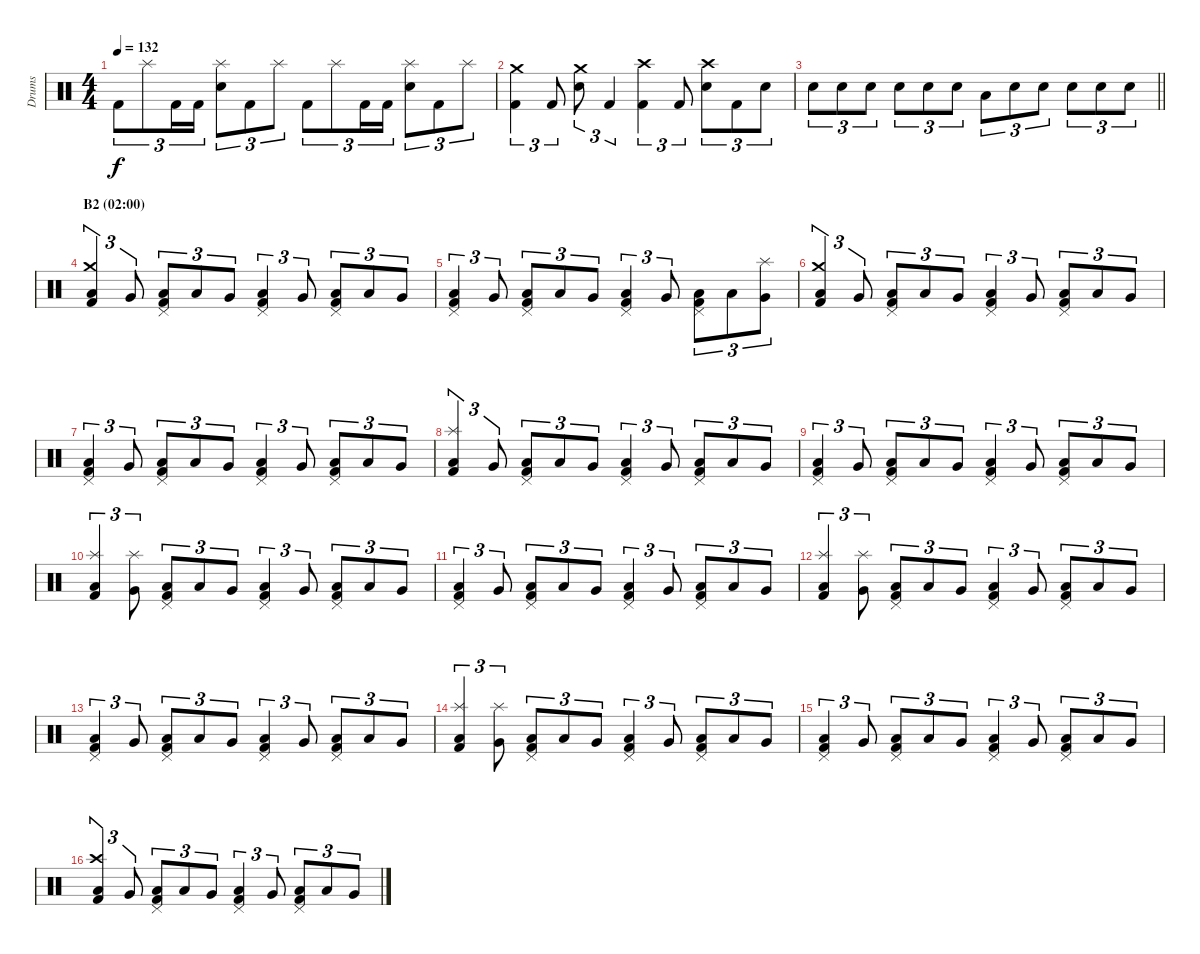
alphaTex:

\track ("Drums" "Drums") {instrument percussion}
\staff {score}
\articulation defaults
\ts (4 4)
\tempo 132
\clef neutral
\ks c "Kick (hit) 2".8{tu (3 2) dy f} "Splash (hit)".8{tu (3 2)} "Kick (hit) 2".16{tu (3 2)} "Kick (hit) 2".16{tu (3 2)}
("Splash (hit)" "Electric Snare (hit)").8{tu (3 2)} "Kick (hit) 2".8{tu (3 2)} "Splash (hit)".8{tu (3 2)} "Kick (hit) 2".8{tu (3 2)} "Splash (hit)".8{tu (3 2)} "Kick (hit) 2".16{tu (3 2)} "Kick (hit) 2".16{tu (3 2)} ("Splash (hit)" "Electric Snare (hit)").8{tu (3 2)} "Kick (hit) 2".8{tu (3 2)} "Splash (hit)".8{tu (3 2)} |
("Crash medium (hit)" "Kick (hit) 2").4{tu (3 2)} "Kick (hit) 2".8{tu (3 2)} ("Crash medium (hit)" "Electric Snare (hit)").8{tu (3 2)} "Kick (hit) 2".4{tu (3 2)} ("Crash high (hit)" "Kick (hit) 2").4{tu (3 2)} "Kick (hit) 2".8{tu (3 2)} ("Crash high (hit)" "Electric Snare (hit)").8{tu (3 2)} "Kick (hit) 2".8{tu (3 2)} "Electric Snare (hit)".8{tu (3 2)} |
\barLineRight lightlight "Electric Snare (hit)".8{tu (3 2)} "Electric Snare (hit)".8{tu (3 2)} "Electric Snare (hit)".8{tu (3 2)} "Electric Snare (hit)".8{tu (3 2)} "Electric Snare (hit)".8{tu (3 2)} "Electric Snare (hit)".8{tu (3 2)} "Low Tom (hit)".8{tu (3 2)} "Electric Snare (hit)".8{tu (3 2)} "Electric Snare (hit)".8{tu (3 2)} "Electric Snare (hit)".8{tu (3 2)} "Electric Snare (hit)".8{tu (3 2)} "Electric Snare (hit)".8{tu (3 2)}
|
\section ("" "B2 (02:00)")
("Crash medium (hit)" "Low Tom (hit)" "Kick (hit) 2").4{tu (3 2)} "Very Low Tom (hit)".8{tu (3 2)} ("Pedal Hi-Hat (hit)" "Low Tom (hit)" "Kick (hit) 2").8{tu (3 2)} "Low Tom (hit)".8{tu (3 2)} "Very Low Tom (hit)".8{tu (3 2)} ("Pedal Hi-Hat (hit)" "Low Tom (hit)" "Kick (hit) 2").4{tu (3 2)} "Very Low Tom (hit)".8{tu (3 2)} ("Pedal Hi-Hat (hit)" "Low Tom (hit)" "Kick (hit) 2").8{tu (3 2)} "Low Tom (hit)".8{tu (3 2)} "Very Low Tom (hit)".8{tu (3 2)} |
("Pedal Hi-Hat (hit)" "Low Tom (hit)" "Kick (hit) 2").4{tu (3 2)} "Very Low Tom (hit)".8{tu (3 2)} ("Pedal Hi-Hat (hit)" "Low Tom (hit)" "Kick (hit) 2").8{tu (3 2)} "Low Tom (hit)".8{tu (3 2)} "Very Low Tom (hit)".8{tu (3 2)} ("Pedal Hi-Hat (hit)" "Low Tom (hit)" "Kick (hit) 2").4{tu (3 2)} "Very Low Tom (hit)".8{tu (3 2)} ("Pedal Hi-Hat (hit)" "Low Tom (hit)" "Kick (hit) 2").8{tu (3 2)} "Low Tom (hit)".8{tu (3 2)} ("Splash (hit)" "Very Low Tom (hit)").8{tu (3 2)} |
("Crash medium (hit)" "Low Tom (hit)" "Kick (hit) 2").4{tu (3 2)} "Very Low Tom (hit)".8{tu (3 2)} ("Pedal Hi-Hat (hit)" "Low Tom (hit)" "Kick (hit) 2").8{tu (3 2)} "Low Tom (hit)".8{tu (3 2)} "Very Low Tom (hit)".8{tu (3 2)} ("Pedal Hi-Hat (hit)" "Low Tom (hit)" "Kick (hit) 2").4{tu (3 2)} "Very Low Tom (hit)".8{tu (3 2)} ("Pedal Hi-Hat (hit)" "Low Tom (hit)" "Kick (hit) 2").8{tu (3 2)} "Low Tom (hit)".8{tu (3 2)} "Very Low Tom (hit)".8{tu (3 2)} |
("Pedal Hi-Hat (hit)" "Low Tom (hit)" "Kick (hit) 2").4{tu (3 2)} "Very Low Tom (hit)".8{tu (3 2)} ("Pedal Hi-Hat (hit)" "Low Tom (hit)" "Kick (hit) 2").8{tu (3 2)} "Low Tom (hit)".8{tu (3 2)} "Very Low Tom (hit)".8{tu (3 2)} ("Pedal Hi-Hat (hit)" "Low Tom (hit)" "Kick (hit) 2").4{tu (3 2)} "Very Low Tom (hit)".8{tu (3 2)} ("Pedal Hi-Hat (hit)" "Low Tom (hit)" "Kick (hit) 2").8{tu (3 2)} "Low Tom (hit)".8{tu (3 2)} "Very Low Tom (hit)".8{tu (3 2)} |
("Splash (hit)" "Low Tom (hit)" "Kick (hit) 2").4{tu (3 2)} "Very Low Tom (hit)".8{tu (3 2)} ("Pedal Hi-Hat (hit)" "Low Tom (hit)" "Kick (hit) 2").8{tu (3 2)} "Low Tom (hit)".8{tu (3 2)} "Very Low Tom (hit)".8{tu (3 2)} ("Pedal Hi-Hat (hit)" "Low Tom (hit)" "Kick (hit) 2").4{tu (3 2)} "Very Low Tom (hit)".8{tu (3 2)} ("Pedal Hi-Hat (hit)" "Low Tom (hit)" "Kick (hit) 2").8{tu (3 2)} "Low Tom (hit)".8{tu (3 2)} "Very Low Tom (hit)".8{tu (3 2)} |
("Pedal Hi-Hat (hit)" "Low Tom (hit)" "Kick (hit) 2").4{tu (3 2)} "Very Low Tom (hit)".8{tu (3 2)} ("Pedal Hi-Hat (hit)" "Low Tom (hit)" "Kick (hit) 2").8{tu (3 2)} "Low Tom (hit)".8{tu (3 2)} "Very Low Tom (hit)".8{tu (3 2)} ("Pedal Hi-Hat (hit)" "Low Tom (hit)" "Kick (hit) 2").4{tu (3 2)} "Very Low Tom (hit)".8{tu (3 2)} ("Pedal Hi-Hat (hit)" "Low Tom (hit)" "Kick (hit) 2").8{tu (3 2)} "Low Tom (hit)".8{tu (3 2)} "Very Low Tom (hit)".8{tu (3 2)} |
("Splash (hit)" "Low Tom (hit)" "Kick (hit) 2").4{tu (3 2)} ("Splash (hit)" "Very Low Tom (hit)").8{tu (3 2)} ("Pedal Hi-Hat (hit)" "Low Tom (hit)" "Kick (hit) 2").8{tu (3 2)} "Low Tom (hit)".8{tu (3 2)} "Very Low Tom (hit)".8{tu (3 2)} ("Pedal Hi-Hat (hit)" "Low Tom (hit)" "Kick (hit) 2").4{tu (3 2)} "Very Low Tom (hit)".8{tu (3 2)} ("Pedal Hi-Hat (hit)" "Low Tom (hit)" "Kick (hit) 2").8{tu (3 2)} "Low Tom (hit)".8{tu (3 2)} "Very Low Tom (hit)".8{tu (3 2)} |
("Pedal Hi-Hat (hit)" "Low Tom (hit)" "Kick (hit) 2").4{tu (3 2)} "Very Low Tom (hit)".8{tu (3 2)} ("Pedal Hi-Hat (hit)" "Low Tom (hit)" "Kick (hit) 2").8{tu (3 2)} "Low Tom (hit)".8{tu (3 2)} "Very Low Tom (hit)".8{tu (3 2)} ("Pedal Hi-Hat (hit)" "Low Tom (hit)" "Kick (hit) 2").4{tu (3 2)} "Very Low Tom (hit)".8{tu (3 2)} ("Pedal Hi-Hat (hit)" "Low Tom (hit)" "Kick (hit) 2").8{tu (3 2)} "Low Tom (hit)".8{tu (3 2)} "Very Low Tom (hit)".8{tu (3 2)} |
("Splash (hit)" "Low Tom (hit)" "Kick (hit) 2").4{tu (3 2)} ("Splash (hit)" "Very Low Tom (hit)").8{tu (3 2)} ("Pedal Hi-Hat (hit)" "Low Tom (hit)" "Kick (hit) 2").8{tu (3 2)} "Low Tom (hit)".8{tu (3 2)} "Very Low Tom (hit)".8{tu (3 2)} ("Pedal Hi-Hat (hit)" "Low Tom (hit)" "Kick (hit) 2").4{tu (3 2)} "Very Low Tom (hit)".8{tu (3 2)} ("Pedal Hi-Hat (hit)" "Low Tom (hit)" "Kick (hit) 2").8{tu (3 2)} "Low Tom (hit)".8{tu (3 2)} "Very Low Tom (hit)".8{tu (3 2)} |
("Pedal Hi-Hat (hit)" "Low Tom (hit)" "Kick (hit) 2").4{tu (3 2)} "Very Low Tom (hit)".8{tu (3 2)} ("Pedal Hi-Hat (hit)" "Low Tom (hit)" "Kick (hit) 2").8{tu (3 2)} "Low Tom (hit)".8{tu (3 2)} "Very Low Tom (hit)".8{tu (3 2)} ("Pedal Hi-Hat (hit)" "Low Tom (hit)" "Kick (hit) 2").4{tu (3 2)} "Very Low Tom (hit)".8{tu (3 2)} ("Pedal Hi-Hat (hit)" "Low Tom (hit)" "Kick (hit) 2").8{tu (3 2)} "Low Tom (hit)".8{tu (3 2)} "Very Low Tom (hit)".8{tu (3 2)} |
("Splash (hit)" "Low Tom (hit)" "Kick (hit) 2").4{tu (3 2)} ("Splash (hit)" "Very Low Tom (hit)").8{tu (3 2)} ("Pedal Hi-Hat (hit)" "Low Tom (hit)" "Kick (hit) 2").8{tu (3 2)} "Low Tom (hit)".8{tu (3 2)} "Very Low Tom (hit)".8{tu (3 2)} ("Pedal Hi-Hat (hit)" "Low Tom (hit)" "Kick (hit) 2").4{tu (3 2)} "Very Low Tom (hit)".8{tu (3 2)} ("Pedal Hi-Hat (hit)" "Low Tom (hit)" "Kick (hit) 2").8{tu (3 2)} "Low Tom (hit)".8{tu (3 2)} "Very Low Tom (hit)".8{tu (3 2)} |
("Pedal Hi-Hat (hit)" "Low Tom (hit)" "Kick (hit) 2").4{tu (3 2)} "Very Low Tom (hit)".8{tu (3 2)} ("Pedal Hi-Hat (hit)" "Low Tom (hit)" "Kick (hit) 2").8{tu (3 2)} "Low Tom (hit)".8{tu (3 2)} "Very Low Tom (hit)".8{tu (3 2)} ("Pedal Hi-Hat (hit)" "Low Tom (hit)" "Kick (hit) 2").4{tu (3 2)} "Very Low Tom (hit)".8{tu (3 2)} ("Pedal Hi-Hat (hit)" "Low Tom (hit)" "Kick (hit) 2").8{tu (3 2)} "Low Tom (hit)".8{tu (3 2)} "Very Low Tom (hit)".8{tu (3 2)} |
("Crash high (hit)" "Low Tom (hit)" "Kick (hit) 2").4{tu (3 2)} "Very Low Tom (hit)".8{tu (3 2)} ("Pedal Hi-Hat (hit)" "Low Tom (hit)" "Kick (hit) 2").8{tu (3 2)} "Low Tom (hit)".8{tu (3 2)} "Very Low Tom (hit)".8{tu (3 2)} ("Pedal Hi-Hat (hit)" "Low Tom (hit)" "Kick (hit) 2").4{tu (3 2)} "Very Low Tom (hit)".8{tu (3 2)} ("Pedal Hi-Hat (hit)" "Low Tom (hit)" "Kick (hit) 2").8{tu (3 2)} "Low Tom (hit)".8{tu (3 2)} "Very Low Tom (hit)".8{tu (3 2)}
